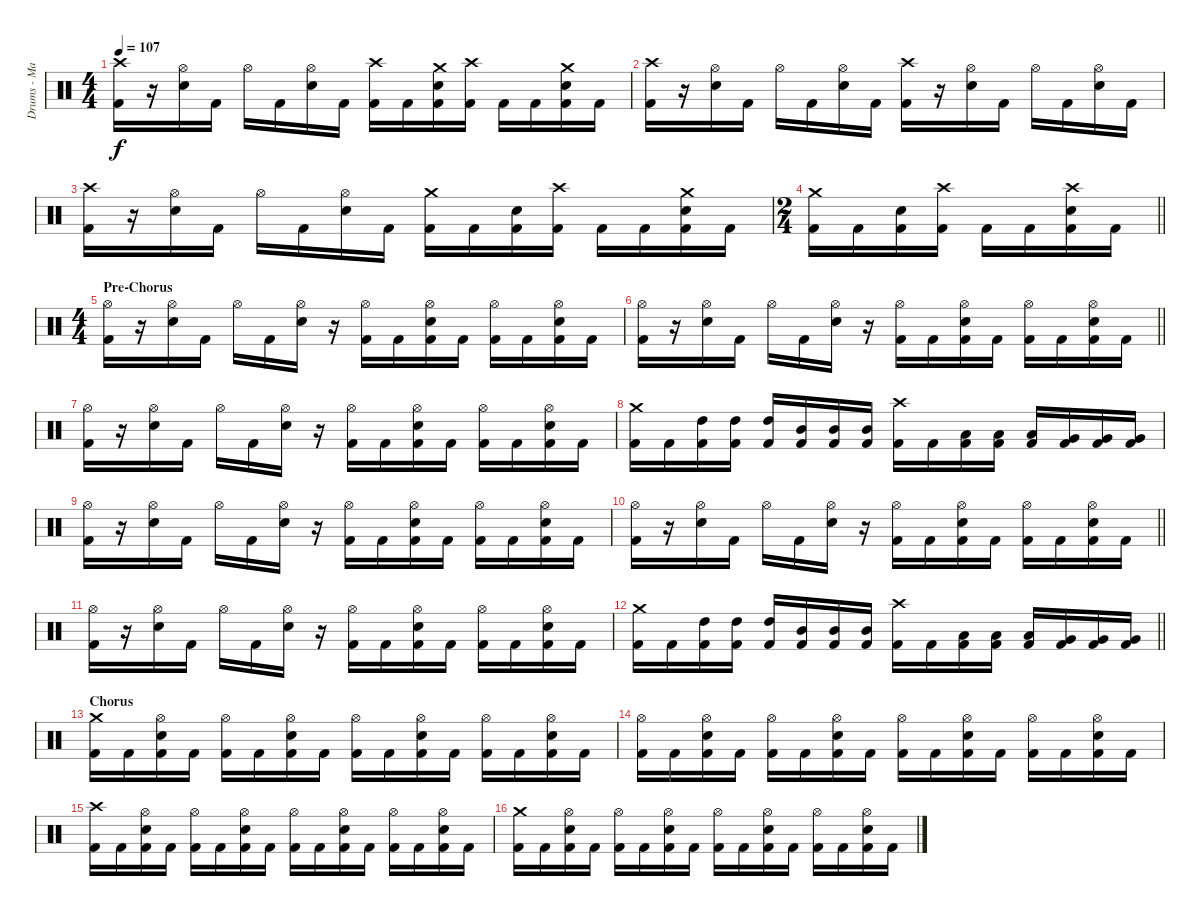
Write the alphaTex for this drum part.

\track ("Drums - Matt Thompson" "Drums - Ma") {instrument percussion}
\staff {score}
\articulation defaults
\ts (4 4)
\tempo 107
\clef neutral
\ks c
("Crash high (hit)" "Kick (hit) 2").16{dy f} r.16 ("Hi-Hat (open)" "Snare (hit) 2").16 "Kick (hit) 2".16 "Hi-Hat (open)".16 "Kick (hit) 2".16 ("Hi-Hat (open)" "Snare (hit) 2").16 "Kick (hit) 2".16 ("Crash high (hit)" "Kick (hit) 2").16 "Kick (hit) 2".16 ("Crash medium (hit)" "Snare (hit) 2" "Kick (hit) 2").16 ("Crash high (hit)" "Kick (hit) 2").16 "Kick (hit) 2".16 "Kick (hit) 2".16 ("Crash medium (hit)" "Snare (hit) 2" "Kick (hit) 2").16 "Kick (hit) 2".16 |
("Crash high (hit)" "Kick (hit) 2").16 r.16 ("Hi-Hat (open)" "Snare (hit) 2").16 "Kick (hit) 2".16 "Hi-Hat (open)".16 "Kick (hit) 2".16 ("Hi-Hat (open)" "Snare (hit) 2").16 "Kick (hit) 2".16 ("Crash high (hit)" "Kick (hit) 2").16 r.16 ("Hi-Hat (open)" "Snare (hit) 2").16 "Kick (hit) 2".16 "Hi-Hat (open)".16 "Kick (hit) 2".16 ("Hi-Hat (open)" "Snare (hit) 2").16 "Kick (hit) 2".16 |
("Crash high (hit)" "Kick (hit) 2").16 r.16 ("Hi-Hat (open)" "Snare (hit) 2").16 "Kick (hit) 2".16 "Hi-Hat (open)".16 "Kick (hit) 2".16 ("Hi-Hat (open)" "Snare (hit) 2").16 "Kick (hit) 2".16 ("Crash medium (hit)" "Kick (hit) 2").16 "Kick (hit) 2".16 ("Snare (hit) 2" "Kick (hit) 2").16 ("Crash high (hit)" "Kick (hit) 2").16 "Kick (hit) 2".16 "Kick (hit) 2".16 ("Crash medium (hit)" "Snare (hit) 2" "Kick (hit) 2").16 "Kick (hit) 2".16 |
\ts (2 4)
\barLineRight lightlight
("Crash medium (hit)" "Kick (hit) 2").16 "Kick (hit) 2".16 ("Snare (hit) 2" "Kick (hit) 2").16 ("Crash high (hit)" "Kick (hit) 2").16 "Kick (hit) 2".16 "Kick (hit) 2".16 ("Crash high (hit)" "Snare (hit) 2" "Kick (hit) 2").16 "Kick (hit) 2".16 |
\ts (4 4)
\section ("" "Pre-Chorus")
("Hi-Hat (open)" "Kick (hit) 2").16 r.16 ("Hi-Hat (open)" "Snare (hit) 2").16 "Kick (hit) 2".16 "Hi-Hat (open)".16 "Kick (hit) 2".16 ("Hi-Hat (open)" "Snare (hit) 2").16 r.16 ("Hi-Hat (open)" "Kick (hit) 2").16 "Kick (hit) 2".16 ("Hi-Hat (open)" "Snare (hit) 2" "Kick (hit) 2").16 "Kick (hit) 2".16 ("Hi-Hat (open)" "Kick (hit) 2").16 "Kick (hit) 2".16 ("Hi-Hat (open)" "Snare (hit) 2" "Kick (hit) 2").16 "Kick (hit) 2".16 |
\barLineRight lightlight
("Hi-Hat (open)" "Kick (hit) 2").16 r.16 ("Hi-Hat (open)" "Snare (hit) 2").16 "Kick (hit) 2".16 "Hi-Hat (open)".16 "Kick (hit) 2".16 ("Hi-Hat (open)" "Snare (hit) 2").16 r.16 ("Hi-Hat (open)" "Kick (hit) 2").16 "Kick (hit) 2".16 ("Hi-Hat (open)" "Snare (hit) 2" "Kick (hit) 2").16 "Kick (hit) 2".16 ("Hi-Hat (open)" "Kick (hit) 2").16 "Kick (hit) 2".16 ("Hi-Hat (open)" "Snare (hit) 2" "Kick (hit) 2").16 "Kick (hit) 2".16 |
("Hi-Hat (open)" "Kick (hit) 2").16 r.16 ("Hi-Hat (open)" "Snare (hit) 2").16 "Kick (hit) 2".16 "Hi-Hat (open)".16 "Kick (hit) 2".16 ("Hi-Hat (open)" "Snare (hit) 2").16 r.16 ("Hi-Hat (open)" "Kick (hit) 2").16 "Kick (hit) 2".16 ("Hi-Hat (open)" "Snare (hit) 2" "Kick (hit) 2").16 "Kick (hit) 2".16 ("Hi-Hat (open)" "Kick (hit) 2").16 "Kick (hit) 2".16 ("Hi-Hat (open)" "Snare (hit) 2" "Kick (hit) 2").16 "Kick (hit) 2".16 |
("Crash medium (hit)" "Kick (hit) 2").16 "Kick (hit) 2".16 ("High Tom (hit)" "Kick (hit) 2").16 ("High Tom (hit)" "Kick (hit) 2").16 ("High Tom (hit)" "Kick (hit) 2").16 ("Mid Tom (hit)" "Kick (hit) 2").16 ("Mid Tom (hit)" "Kick (hit) 2").16 ("Mid Tom (hit)" "Kick (hit) 2").16 ("Crash high (hit)" "Kick (hit) 2").16 "Kick (hit) 2".16 ("Low Tom (hit)" "Kick (hit) 2").16 ("Low Tom (hit)" "Kick (hit) 2").16 ("Low Tom (hit)" "Kick (hit) 2").16 ("Very Low Tom (hit)" "Kick (hit) 2").16 ("Very Low Tom (hit)" "Kick (hit) 2").16 ("Very Low Tom (hit)" "Kick (hit) 2").16 |
("Hi-Hat (open)" "Kick (hit) 2").16 r.16 ("Hi-Hat (open)" "Snare (hit) 2").16 "Kick (hit) 2".16 "Hi-Hat (open)".16 "Kick (hit) 2".16 ("Hi-Hat (open)" "Snare (hit) 2").16 r.16 ("Hi-Hat (open)" "Kick (hit) 2").16 "Kick (hit) 2".16 ("Hi-Hat (open)" "Snare (hit) 2" "Kick (hit) 2").16 "Kick (hit) 2".16 ("Hi-Hat (open)" "Kick (hit) 2").16 "Kick (hit) 2".16 ("Hi-Hat (open)" "Snare (hit) 2" "Kick (hit) 2").16 "Kick (hit) 2".16 |
\barLineRight lightlight
("Hi-Hat (open)" "Kick (hit) 2").16 r.16 ("Hi-Hat (open)" "Snare (hit) 2").16 "Kick (hit) 2".16 "Hi-Hat (open)".16 "Kick (hit) 2".16 ("Hi-Hat (open)" "Snare (hit) 2").16 r.16 ("Hi-Hat (open)" "Kick (hit) 2").16 "Kick (hit) 2".16 ("Hi-Hat (open)" "Snare (hit) 2" "Kick (hit) 2").16 "Kick (hit) 2".16 ("Hi-Hat (open)" "Kick (hit) 2").16 "Kick (hit) 2".16 ("Hi-Hat (open)" "Snare (hit) 2" "Kick (hit) 2").16 "Kick (hit) 2".16 |
("Hi-Hat (open)" "Kick (hit) 2").16 r.16 ("Hi-Hat (open)" "Snare (hit) 2").16 "Kick (hit) 2".16 "Hi-Hat (open)".16 "Kick (hit) 2".16 ("Hi-Hat (open)" "Snare (hit) 2").16 r.16 ("Hi-Hat (open)" "Kick (hit) 2").16 "Kick (hit) 2".16 ("Hi-Hat (open)" "Snare (hit) 2" "Kick (hit) 2").16 "Kick (hit) 2".16 ("Hi-Hat (open)" "Kick (hit) 2").16 "Kick (hit) 2".16 ("Hi-Hat (open)" "Snare (hit) 2" "Kick (hit) 2").16 "Kick (hit) 2".16 |
\barLineRight lightlight
("Crash medium (hit)" "Kick (hit) 2").16 "Kick (hit) 2".16 ("High Tom (hit)" "Kick (hit) 2").16 ("High Tom (hit)" "Kick (hit) 2").16 ("High Tom (hit)" "Kick (hit) 2").16 ("Mid Tom (hit)" "Kick (hit) 2").16 ("Mid Tom (hit)" "Kick (hit) 2").16 ("Mid Tom (hit)" "Kick (hit) 2").16 ("Crash high (hit)" "Kick (hit) 2").16 "Kick (hit) 2".16 ("Low Tom (hit)" "Kick (hit) 2").16 ("Low Tom (hit)" "Kick (hit) 2").16 ("Low Tom (hit)" "Kick (hit) 2").16 ("Very Low Tom (hit)" "Kick (hit) 2").16 ("Very Low Tom (hit)" "Kick (hit) 2").16 ("Very Low Tom (hit)" "Kick (hit) 2").16 |
\section ("" "Chorus")
("Crash medium (hit)" "Kick (hit) 2").16 "Kick (hit) 2".16 ("Hi-Hat (open)" "Snare (hit) 2" "Kick (hit) 2").16 "Kick (hit) 2".16 ("Hi-Hat (open)" "Kick (hit) 2").16 "Kick (hit) 2".16 ("Hi-Hat (open)" "Snare (hit) 2" "Kick (hit) 2").16 "Kick (hit) 2".16 ("Hi-Hat (open)" "Kick (hit) 2").16 "Kick (hit) 2".16 ("Hi-Hat (open)" "Snare (hit) 2" "Kick (hit) 2").16 "Kick (hit) 2".16 ("Hi-Hat (open)" "Kick (hit) 2").16 "Kick (hit) 2".16 ("Hi-Hat (open)" "Snare (hit) 2" "Kick (hit) 2").16 "Kick (hit) 2".16 |
("Hi-Hat (open)" "Kick (hit) 2").16 "Kick (hit) 2".16 ("Hi-Hat (open)" "Snare (hit) 2" "Kick (hit) 2").16 "Kick (hit) 2".16 ("Hi-Hat (open)" "Kick (hit) 2").16 "Kick (hit) 2".16 ("Hi-Hat (open)" "Snare (hit) 2" "Kick (hit) 2").16 "Kick (hit) 2".16 ("Hi-Hat (open)" "Kick (hit) 2").16 "Kick (hit) 2".16 ("Hi-Hat (open)" "Snare (hit) 2" "Kick (hit) 2").16 "Kick (hit) 2".16 ("Hi-Hat (open)" "Kick (hit) 2").16 "Kick (hit) 2".16 ("Hi-Hat (open)" "Snare (hit) 2" "Kick (hit) 2").16 "Kick (hit) 2".16 |
("Crash high (hit)" "Kick (hit) 2").16 "Kick (hit) 2".16 ("Hi-Hat (open)" "Snare (hit) 2" "Kick (hit) 2").16 "Kick (hit) 2".16 ("Hi-Hat (open)" "Kick (hit) 2").16 "Kick (hit) 2".16 ("Hi-Hat (open)" "Snare (hit) 2" "Kick (hit) 2").16 "Kick (hit) 2".16 ("Hi-Hat (open)" "Kick (hit) 2").16 "Kick (hit) 2".16 ("Hi-Hat (open)" "Snare (hit) 2" "Kick (hit) 2").16 "Kick (hit) 2".16 ("Hi-Hat (open)" "Kick (hit) 2").16 "Kick (hit) 2".16 ("Hi-Hat (open)" "Snare (hit) 2" "Kick (hit) 2").16 "Kick (hit) 2".16 |
("Crash medium (hit)" "Kick (hit) 2").16 "Kick (hit) 2".16 ("Hi-Hat (open)" "Snare (hit) 2" "Kick (hit) 2").16 "Kick (hit) 2".16 ("Hi-Hat (open)" "Kick (hit) 2").16 "Kick (hit) 2".16 ("Hi-Hat (open)" "Snare (hit) 2" "Kick (hit) 2").16 "Kick (hit) 2".16 ("Hi-Hat (open)" "Kick (hit) 2").16 "Kick (hit) 2".16 ("Hi-Hat (open)" "Snare (hit) 2" "Kick (hit) 2").16 "Kick (hit) 2".16 ("Hi-Hat (open)" "Kick (hit) 2").16 "Kick (hit) 2".16 ("Hi-Hat (open)" "Snare (hit) 2" "Kick (hit) 2").16 "Kick (hit) 2".16
